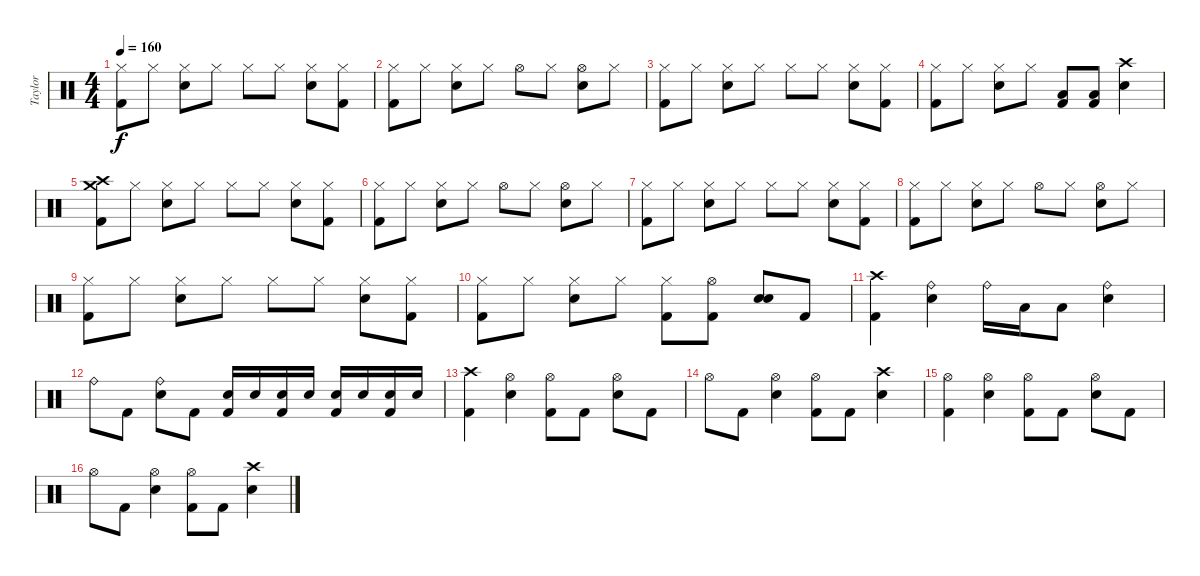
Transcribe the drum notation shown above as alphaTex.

\track ("Taylor" "Taylor") {instrument percussion}
\staff {score}
\articulation defaults
\ts (4 4)
\tempo 160
\clef neutral
\ks c
("Hi-Hat (closed)" "Kick (hit) 2").8{dy f} "Hi-Hat (closed)".8 ("Hi-Hat (closed)" "Electric Snare (hit)").8 "Hi-Hat (closed)".8 "Hi-Hat (closed)".8 "Hi-Hat (closed)".8 ("Hi-Hat (closed)" "Electric Snare (hit)").8 ("Hi-Hat (closed)" "Kick (hit) 2").8 |
("Hi-Hat (closed)" "Kick (hit) 2").8 "Hi-Hat (closed)".8 ("Hi-Hat (closed)" "Electric Snare (hit)").8 "Hi-Hat (closed)".8 "Hi-Hat (open)".8 "Hi-Hat (closed)".8 ("Hi-Hat (open)" "Electric Snare (hit)").8 "Hi-Hat (closed)".8 |
("Hi-Hat (closed)" "Kick (hit) 2").8 "Hi-Hat (closed)".8 ("Hi-Hat (closed)" "Electric Snare (hit)").8 "Hi-Hat (closed)".8 "Hi-Hat (closed)".8 "Hi-Hat (closed)".8 ("Hi-Hat (closed)" "Electric Snare (hit)").8 ("Hi-Hat (closed)" "Kick (hit) 2").8 |
("Hi-Hat (closed)" "Kick (hit) 2").8 "Hi-Hat (closed)".8 ("Hi-Hat (closed)" "Electric Snare (hit)").8 "Hi-Hat (closed)".8 ("Low Tom (hit)" "Kick (hit) 2").8 ("Low Tom (hit)" "Kick (hit) 2").8 ("Crash high (hit)" "Electric Snare (hit)").4 |
("Crash high (hit)" "Crash medium (hit)" "Kick (hit) 2").8 "Hi-Hat (closed)".8 ("Hi-Hat (closed)" "Electric Snare (hit)").8 "Hi-Hat (closed)".8 "Hi-Hat (closed)".8 "Hi-Hat (closed)".8 ("Hi-Hat (closed)" "Electric Snare (hit)").8 ("Hi-Hat (closed)" "Kick (hit) 2").8 |
("Hi-Hat (closed)" "Kick (hit) 2").8 "Hi-Hat (closed)".8 ("Hi-Hat (closed)" "Electric Snare (hit)").8 "Hi-Hat (closed)".8 "Hi-Hat (open)".8 "Hi-Hat (closed)".8 ("Hi-Hat (open)" "Electric Snare (hit)").8 "Hi-Hat (closed)".8 |
("Hi-Hat (closed)" "Kick (hit) 2").8 "Hi-Hat (closed)".8 ("Hi-Hat (closed)" "Electric Snare (hit)").8 "Hi-Hat (closed)".8 "Hi-Hat (closed)".8 "Hi-Hat (closed)".8 ("Hi-Hat (closed)" "Electric Snare (hit)").8 ("Hi-Hat (closed)" "Kick (hit) 2").8 |
("Hi-Hat (closed)" "Kick (hit) 2").8 "Hi-Hat (closed)".8 ("Hi-Hat (closed)" "Electric Snare (hit)").8 "Hi-Hat (closed)".8 "Hi-Hat (open)".8 "Hi-Hat (closed)".8 ("Hi-Hat (open)" "Electric Snare (hit)").8 "Hi-Hat (closed)".8 |
("Hi-Hat (closed)" "Kick (hit) 2").8 "Hi-Hat (closed)".8 ("Hi-Hat (closed)" "Electric Snare (hit)").8 "Hi-Hat (closed)".8 "Hi-Hat (closed)".8 "Hi-Hat (closed)".8 ("Hi-Hat (closed)" "Electric Snare (hit)").8 ("Hi-Hat (closed)" "Kick (hit) 2").8 |
("Hi-Hat (closed)" "Kick (hit) 2").8 "Hi-Hat (closed)".8 ("Hi-Hat (closed)" "Electric Snare (hit)").8 "Hi-Hat (closed)".8 ("Hi-Hat (closed)" "Kick (hit) 2").8 ("Hi-Hat (open)" "Kick (hit) 2").8 ("Electric Snare (hit)" "Electric Snare (hit)").8 "Kick (hit) 2".8 |
("Crash high (hit)" "Kick (hit) 2").4 ("Ride (bell)" "Electric Snare (hit)").4 "Ride (bell)".16 "Low Tom (hit)".16 "Low Tom (hit)".8 ("Ride (bell)" "Electric Snare (hit)").4 |
"Ride (bell)".8 "Kick (hit) 2".8 ("Ride (bell)" "Electric Snare (hit)").8 "Kick (hit) 2".8 ("Electric Snare (hit)" "Kick (hit) 2").16 "Electric Snare (hit)".16 ("Electric Snare (hit)" "Kick (hit) 2").16 "Electric Snare (hit)".16 ("Electric Snare (hit)" "Kick (hit) 2").16 "Electric Snare (hit)".16 ("Electric Snare (hit)" "Kick (hit) 2").16 "Electric Snare (hit)".16 |
("Crash high (hit)" "Kick (hit) 2").4 ("Hi-Hat (open)" "Electric Snare (hit)").4 ("Hi-Hat (open)" "Kick (hit) 2").8 "Kick (hit) 2".8 ("Hi-Hat (open)" "Electric Snare (hit)").8 "Kick (hit) 2".8 |
"Hi-Hat (open)".8 "Kick (hit) 2".8 ("Hi-Hat (open)" "Electric Snare (hit)").4 ("Hi-Hat (open)" "Kick (hit) 2").8 "Kick (hit) 2".8 ("Crash high (hit)" "Electric Snare (hit)").4 |
("Hi-Hat (open)" "Kick (hit) 2").4 ("Hi-Hat (open)" "Electric Snare (hit)").4 ("Hi-Hat (open)" "Kick (hit) 2").8 "Kick (hit) 2".8 ("Hi-Hat (open)" "Electric Snare (hit)").8 "Kick (hit) 2".8 |
"Hi-Hat (open)".8 "Kick (hit) 2".8 ("Hi-Hat (open)" "Electric Snare (hit)").4 ("Hi-Hat (open)" "Kick (hit) 2").8 "Kick (hit) 2".8 ("Crash high (hit)" "Electric Snare (hit)").4
